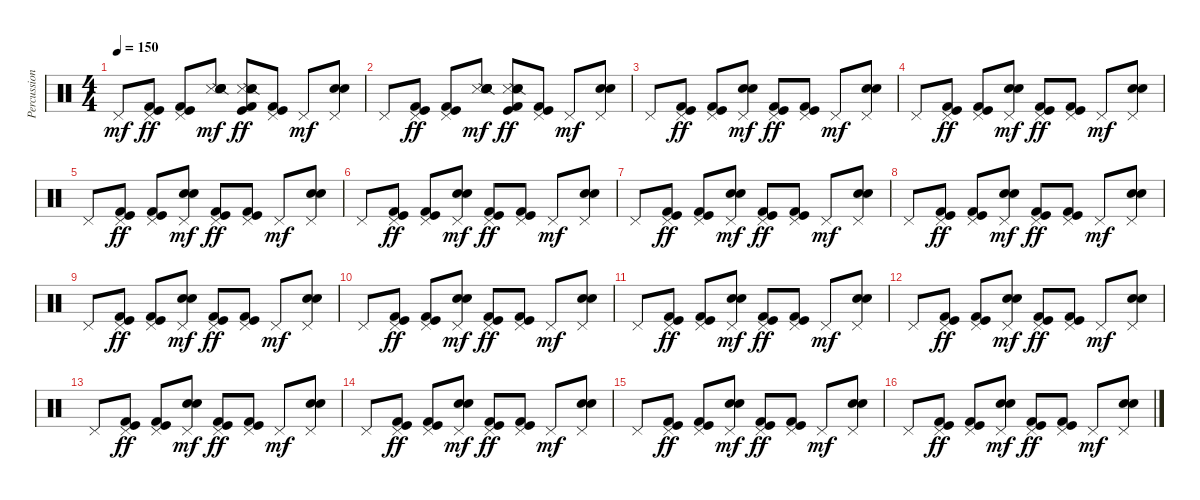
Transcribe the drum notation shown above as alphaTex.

\track ("Percussions" "Percussion") {instrument percussion}
\staff {score}
\articulation defaults
\ts (4 4)
\tempo 150
\clef neutral
\ks c "Pedal Hi-Hat (hit)".8{dy mf}
("Pedal Hi-Hat (hit)" "Kick (hit)" "Kick (hit) 2").8{dy ff} ("Pedal Hi-Hat (hit)" "Kick (hit)" "Kick (hit) 2").8 ("Metronome (hit)" "Hand Clap (hit)" "Snare (side stick) 2" "Electric Snare (hit)" "Snare (hit) 2").8{dy mf} ("Metronome (hit)" "Hand Clap (hit)" "Snare (side stick) 2" "Kick (hit)" "Kick (hit) 2").8{dy ff} ("Pedal Hi-Hat (hit)" "Kick (hit)" "Kick (hit) 2").8 "Pedal Hi-Hat (hit)".8{dy mf} ("Pedal Hi-Hat (hit)" "Electric Snare (hit)" "Snare (hit) 2").8 |
"Pedal Hi-Hat (hit)".8 ("Pedal Hi-Hat (hit)" "Kick (hit)" "Kick (hit) 2").8{dy ff} ("Pedal Hi-Hat (hit)" "Kick (hit)" "Kick (hit) 2").8 ("Metronome (hit)" "Hand Clap (hit)" "Snare (side stick) 2" "Electric Snare (hit)" "Snare (hit) 2").8{dy mf} ("Metronome (hit)" "Hand Clap (hit)" "Snare (side stick) 2" "Kick (hit)" "Kick (hit) 2").8{dy ff} ("Pedal Hi-Hat (hit)" "Kick (hit)" "Kick (hit) 2").8 "Pedal Hi-Hat (hit)".8{dy mf} ("Pedal Hi-Hat (hit)" "Electric Snare (hit)" "Snare (hit) 2").8 |
"Pedal Hi-Hat (hit)".8 ("Pedal Hi-Hat (hit)" "Kick (hit)" "Kick (hit) 2").8{dy ff} ("Pedal Hi-Hat (hit)" "Kick (hit)" "Kick (hit) 2").8 ("Pedal Hi-Hat (hit)" "Electric Snare (hit)" "Snare (hit) 2").8{dy mf} ("Pedal Hi-Hat (hit)" "Kick (hit)" "Kick (hit) 2").8{dy ff} ("Pedal Hi-Hat (hit)" "Kick (hit)" "Kick (hit) 2").8 "Pedal Hi-Hat (hit)".8{dy mf} ("Pedal Hi-Hat (hit)" "Electric Snare (hit)" "Snare (hit) 2").8 |
"Pedal Hi-Hat (hit)".8 ("Pedal Hi-Hat (hit)" "Kick (hit)" "Kick (hit) 2").8{dy ff} ("Pedal Hi-Hat (hit)" "Kick (hit)" "Kick (hit) 2").8 ("Pedal Hi-Hat (hit)" "Electric Snare (hit)" "Snare (hit) 2").8{dy mf} ("Pedal Hi-Hat (hit)" "Kick (hit)" "Kick (hit) 2").8{dy ff} ("Pedal Hi-Hat (hit)" "Kick (hit)" "Kick (hit) 2").8 "Pedal Hi-Hat (hit)".8{dy mf} ("Pedal Hi-Hat (hit)" "Electric Snare (hit)" "Snare (hit) 2").8 |
"Pedal Hi-Hat (hit)".8 ("Pedal Hi-Hat (hit)" "Kick (hit)" "Kick (hit) 2").8{dy ff} ("Pedal Hi-Hat (hit)" "Kick (hit)" "Kick (hit) 2").8 ("Pedal Hi-Hat (hit)" "Electric Snare (hit)" "Snare (hit) 2").8{dy mf} ("Pedal Hi-Hat (hit)" "Kick (hit)" "Kick (hit) 2").8{dy ff} ("Pedal Hi-Hat (hit)" "Kick (hit)" "Kick (hit) 2").8 "Pedal Hi-Hat (hit)".8{dy mf} ("Pedal Hi-Hat (hit)" "Electric Snare (hit)" "Snare (hit) 2").8 |
"Pedal Hi-Hat (hit)".8 ("Pedal Hi-Hat (hit)" "Kick (hit)" "Kick (hit) 2").8{dy ff} ("Pedal Hi-Hat (hit)" "Kick (hit)" "Kick (hit) 2").8 ("Pedal Hi-Hat (hit)" "Electric Snare (hit)" "Snare (hit) 2").8{dy mf} ("Pedal Hi-Hat (hit)" "Kick (hit)" "Kick (hit) 2").8{dy ff} ("Pedal Hi-Hat (hit)" "Kick (hit)" "Kick (hit) 2").8 "Pedal Hi-Hat (hit)".8{dy mf} ("Pedal Hi-Hat (hit)" "Electric Snare (hit)" "Snare (hit) 2").8 |
"Pedal Hi-Hat (hit)".8 ("Pedal Hi-Hat (hit)" "Kick (hit)" "Kick (hit) 2").8{dy ff} ("Pedal Hi-Hat (hit)" "Kick (hit)" "Kick (hit) 2").8 ("Pedal Hi-Hat (hit)" "Electric Snare (hit)" "Snare (hit) 2").8{dy mf} ("Pedal Hi-Hat (hit)" "Kick (hit)" "Kick (hit) 2").8{dy ff} ("Pedal Hi-Hat (hit)" "Kick (hit)" "Kick (hit) 2").8 "Pedal Hi-Hat (hit)".8{dy mf} ("Pedal Hi-Hat (hit)" "Electric Snare (hit)" "Snare (hit) 2").8 |
"Pedal Hi-Hat (hit)".8 ("Pedal Hi-Hat (hit)" "Kick (hit)" "Kick (hit) 2").8{dy ff} ("Pedal Hi-Hat (hit)" "Kick (hit)" "Kick (hit) 2").8 ("Pedal Hi-Hat (hit)" "Electric Snare (hit)" "Snare (hit) 2").8{dy mf} ("Pedal Hi-Hat (hit)" "Kick (hit)" "Kick (hit) 2").8{dy ff} ("Pedal Hi-Hat (hit)" "Kick (hit)" "Kick (hit) 2").8 "Pedal Hi-Hat (hit)".8{dy mf} ("Pedal Hi-Hat (hit)" "Electric Snare (hit)" "Snare (hit) 2").8 |
"Pedal Hi-Hat (hit)".8 ("Pedal Hi-Hat (hit)" "Kick (hit)" "Kick (hit) 2").8{dy ff} ("Pedal Hi-Hat (hit)" "Kick (hit)" "Kick (hit) 2").8 ("Pedal Hi-Hat (hit)" "Electric Snare (hit)" "Snare (hit) 2").8{dy mf} ("Pedal Hi-Hat (hit)" "Kick (hit)" "Kick (hit) 2").8{dy ff} ("Pedal Hi-Hat (hit)" "Kick (hit)" "Kick (hit) 2").8 "Pedal Hi-Hat (hit)".8{dy mf} ("Pedal Hi-Hat (hit)" "Electric Snare (hit)" "Snare (hit) 2").8 |
"Pedal Hi-Hat (hit)".8 ("Pedal Hi-Hat (hit)" "Kick (hit)" "Kick (hit) 2").8{dy ff} ("Pedal Hi-Hat (hit)" "Kick (hit)" "Kick (hit) 2").8 ("Pedal Hi-Hat (hit)" "Electric Snare (hit)" "Snare (hit) 2").8{dy mf} ("Pedal Hi-Hat (hit)" "Kick (hit)" "Kick (hit) 2").8{dy ff} ("Pedal Hi-Hat (hit)" "Kick (hit)" "Kick (hit) 2").8 "Pedal Hi-Hat (hit)".8{dy mf} ("Pedal Hi-Hat (hit)" "Electric Snare (hit)" "Snare (hit) 2").8 |
"Pedal Hi-Hat (hit)".8 ("Pedal Hi-Hat (hit)" "Kick (hit)" "Kick (hit) 2").8{dy ff} ("Pedal Hi-Hat (hit)" "Kick (hit)" "Kick (hit) 2").8 ("Pedal Hi-Hat (hit)" "Electric Snare (hit)" "Snare (hit) 2").8{dy mf} ("Pedal Hi-Hat (hit)" "Kick (hit)" "Kick (hit) 2").8{dy ff} ("Pedal Hi-Hat (hit)" "Kick (hit)" "Kick (hit) 2").8 "Pedal Hi-Hat (hit)".8{dy mf} ("Pedal Hi-Hat (hit)" "Electric Snare (hit)" "Snare (hit) 2").8 |
"Pedal Hi-Hat (hit)".8 ("Pedal Hi-Hat (hit)" "Kick (hit)" "Kick (hit) 2").8{dy ff} ("Pedal Hi-Hat (hit)" "Kick (hit)" "Kick (hit) 2").8 ("Pedal Hi-Hat (hit)" "Electric Snare (hit)" "Snare (hit) 2").8{dy mf} ("Pedal Hi-Hat (hit)" "Kick (hit)" "Kick (hit) 2").8{dy ff} ("Pedal Hi-Hat (hit)" "Kick (hit)" "Kick (hit) 2").8 "Pedal Hi-Hat (hit)".8{dy mf} ("Pedal Hi-Hat (hit)" "Electric Snare (hit)" "Snare (hit) 2").8 |
"Pedal Hi-Hat (hit)".8 ("Pedal Hi-Hat (hit)" "Kick (hit)" "Kick (hit) 2").8{dy ff} ("Pedal Hi-Hat (hit)" "Kick (hit)" "Kick (hit) 2").8 ("Pedal Hi-Hat (hit)" "Electric Snare (hit)" "Snare (hit) 2").8{dy mf} ("Pedal Hi-Hat (hit)" "Kick (hit)" "Kick (hit) 2").8{dy ff} ("Pedal Hi-Hat (hit)" "Kick (hit)" "Kick (hit) 2").8 "Pedal Hi-Hat (hit)".8{dy mf} ("Pedal Hi-Hat (hit)" "Electric Snare (hit)" "Snare (hit) 2").8 |
"Pedal Hi-Hat (hit)".8 ("Pedal Hi-Hat (hit)" "Kick (hit)" "Kick (hit) 2").8{dy ff} ("Pedal Hi-Hat (hit)" "Kick (hit)" "Kick (hit) 2").8 ("Pedal Hi-Hat (hit)" "Electric Snare (hit)" "Snare (hit) 2").8{dy mf} ("Pedal Hi-Hat (hit)" "Kick (hit)" "Kick (hit) 2").8{dy ff} ("Pedal Hi-Hat (hit)" "Kick (hit)" "Kick (hit) 2").8 "Pedal Hi-Hat (hit)".8{dy mf} ("Pedal Hi-Hat (hit)" "Electric Snare (hit)" "Snare (hit) 2").8 |
"Pedal Hi-Hat (hit)".8 ("Pedal Hi-Hat (hit)" "Kick (hit)" "Kick (hit) 2").8{dy ff} ("Pedal Hi-Hat (hit)" "Kick (hit)" "Kick (hit) 2").8 ("Pedal Hi-Hat (hit)" "Electric Snare (hit)" "Snare (hit) 2").8{dy mf} ("Pedal Hi-Hat (hit)" "Kick (hit)" "Kick (hit) 2").8{dy ff} ("Pedal Hi-Hat (hit)" "Kick (hit)" "Kick (hit) 2").8 "Pedal Hi-Hat (hit)".8{dy mf} ("Pedal Hi-Hat (hit)" "Electric Snare (hit)" "Snare (hit) 2").8 |
"Pedal Hi-Hat (hit)".8 ("Pedal Hi-Hat (hit)" "Kick (hit)" "Kick (hit) 2").8{dy ff} ("Pedal Hi-Hat (hit)" "Kick (hit)" "Kick (hit) 2").8 ("Pedal Hi-Hat (hit)" "Electric Snare (hit)" "Snare (hit) 2").8{dy mf} ("Pedal Hi-Hat (hit)" "Kick (hit)" "Kick (hit) 2").8{dy ff} ("Pedal Hi-Hat (hit)" "Kick (hit)" "Kick (hit) 2").8 "Pedal Hi-Hat (hit)".8{dy mf} ("Pedal Hi-Hat (hit)" "Electric Snare (hit)" "Snare (hit) 2").8
